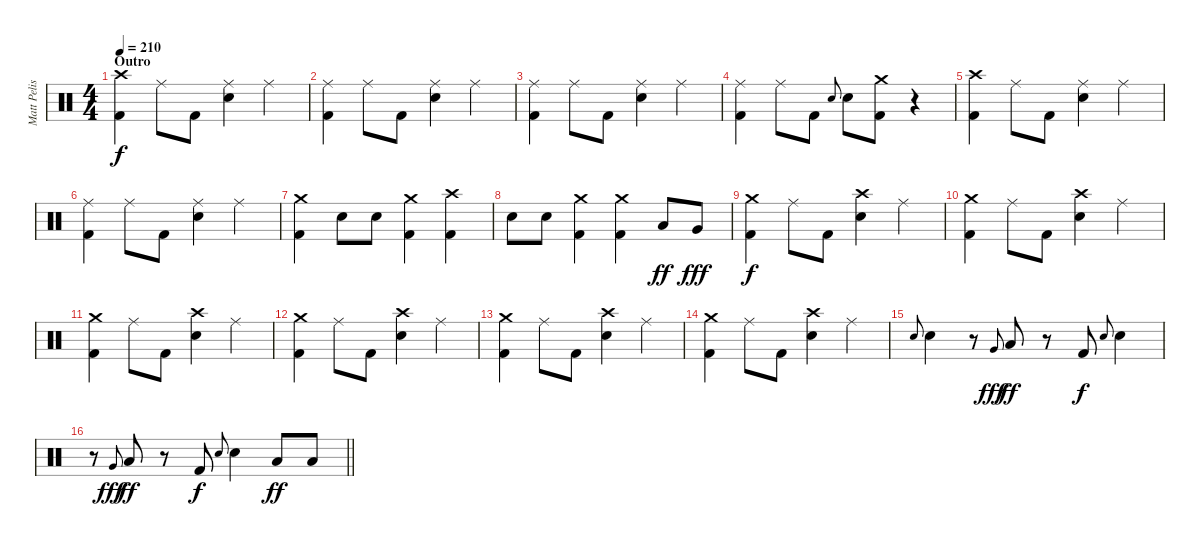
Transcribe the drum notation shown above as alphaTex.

\track ("Matt Pelissier" "Matt Pelis") {instrument percussion}
\staff {score}
\articulation defaults
\ts (4 4)
\section ("" "Outro")
\tempo 210
\clef neutral
\ks c
("Crash high (hit)" "Kick (hit) 2").4{dy f} "Ride (middle)".8 "Kick (hit) 2".8 ("Ride (middle)" "Snare (hit) 2").4 "Ride (middle)".4 |
("Ride (middle)" "Kick (hit) 2").4 "Ride (middle)".8 "Kick (hit) 2".8 ("Ride (middle)" "Snare (hit) 2").4 "Ride (middle)".4 |
("Ride (middle)" "Kick (hit) 2").4 "Ride (middle)".8 "Kick (hit) 2".8 ("Ride (middle)" "Snare (hit) 2").4 "Ride (middle)".4 |
("Ride (middle)" "Kick (hit) 2").4 "Ride (middle)".8 "Kick (hit) 2".8 "Snare (hit) 2".8{gr onbeat} "Snare (hit) 2".8 ("Crash medium (hit)" "Kick (hit) 2").8 r.4 |
("Crash high (hit)" "Kick (hit) 2").4 "Ride (middle)".8 "Kick (hit) 2".8 ("Ride (middle)" "Snare (hit) 2").4 "Ride (middle)".4 |
("Ride (middle)" "Kick (hit) 2").4 "Ride (middle)".8 "Kick (hit) 2".8 ("Ride (middle)" "Snare (hit) 2").4 "Ride (middle)".4 |
("Crash medium (hit)" "Kick (hit) 2").4 "Snare (hit) 2".8 "Snare (hit) 2".8 ("Crash medium (hit)" "Kick (hit) 2").4 ("Crash high (hit)" "Kick (hit) 2").4 |
"Snare (hit) 2".8 "Snare (hit) 2".8 ("Crash medium (hit)" "Kick (hit) 2").4 ("Crash medium (hit)" "Kick (hit) 2").4 "Low Tom (hit)".8{dy ff} "Very Low Tom (hit)".8{dy fff} |
("Crash medium (hit)" "Kick (hit) 2").4{dy f} "Ride (middle)".8 "Kick (hit) 2".8 ("Crash high (hit)" "Snare (hit) 2").4 "Ride (middle)".4 |
("Crash medium (hit)" "Kick (hit) 2").4 "Ride (middle)".8 "Kick (hit) 2".8 ("Crash high (hit)" "Snare (hit) 2").4 "Ride (middle)".4 |
("Crash medium (hit)" "Kick (hit) 2").4 "Ride (middle)".8 "Kick (hit) 2".8 ("Crash high (hit)" "Snare (hit) 2").4 "Ride (middle)".4 |
("Crash medium (hit)" "Kick (hit) 2").4 "Ride (middle)".8 "Kick (hit) 2".8 ("Crash high (hit)" "Snare (hit) 2").4 "Ride (middle)".4 |
("Crash medium (hit)" "Kick (hit) 2").4 "Ride (middle)".8 "Kick (hit) 2".8 ("Crash high (hit)" "Snare (hit) 2").4 "Ride (middle)".4 |
("Crash medium (hit)" "Kick (hit) 2").4 "Ride (middle)".8 "Kick (hit) 2".8 ("Crash high (hit)" "Snare (hit) 2").4 "Ride (middle)".4 |
"Snare (hit) 2".8{gr onbeat} "Snare (hit) 2".4 r.8 "Very Low Tom (hit)".8{gr onbeat dy fff} "Low Tom (hit)".8{dy ff} r.8 "Kick (hit) 2".8{dy f} "Snare (hit) 2".8{gr onbeat} "Snare (hit) 2".4 |
\barLineRight lightlight
r.8 "Very Low Tom (hit)".8{gr onbeat dy fff} "Low Tom (hit)".8{dy ff} r.8 "Kick (hit) 2".8{dy f} "Snare (hit) 2".8{gr onbeat} "Snare (hit) 2".4 "Low Tom (hit)".8{dy ff} "Low Tom (hit)".8
